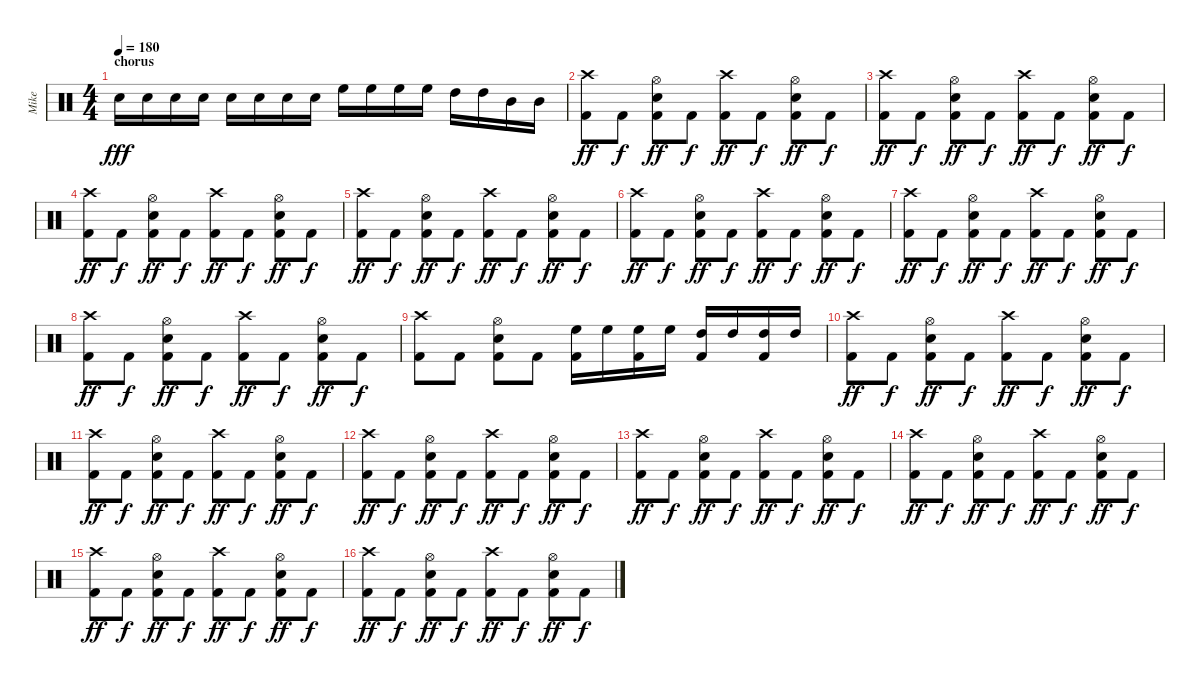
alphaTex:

\track ("Mike" "Mike") {instrument percussion}
\staff {score}
\articulation defaults
\ts (4 4)
\section ("" "chorus")
\tempo 180
\clef neutral
\ks c "Snare (hit) 2".16{dy fff} "Snare (hit) 2".16 "Snare (hit) 2".16 "Snare (hit) 2".16 "Snare (hit) 2".16 "Snare (hit) 2".16 "Snare (hit) 2".16 "Snare (hit) 2".16 "High Floor Tom (hit)".16 "High Floor Tom (hit)".16 "High Floor Tom (hit)".16 "High Floor Tom (hit)".16 "High Tom (hit)".16 "High Tom (hit)".16 "Mid Tom (hit)".16 "Mid Tom (hit)".16
|
("Crash high (hit)" "Kick (hit) 2").8{dy ff} "Kick (hit) 2".8{dy f} ("Hi-Hat (open)" "Snare (hit) 2" "Kick (hit) 2").8{dy ff} "Kick (hit) 2".8{dy f} ("Crash high (hit)" "Kick (hit) 2").8{dy ff} "Kick (hit) 2".8{dy f} ("Hi-Hat (open)" "Snare (hit) 2" "Kick (hit) 2").8{dy ff} "Kick (hit) 2".8{dy f} |
("Crash high (hit)" "Kick (hit) 2").8{dy ff} "Kick (hit) 2".8{dy f} ("Hi-Hat (open)" "Snare (hit) 2" "Kick (hit) 2").8{dy ff} "Kick (hit) 2".8{dy f} ("Crash high (hit)" "Kick (hit) 2").8{dy ff} "Kick (hit) 2".8{dy f} ("Hi-Hat (open)" "Snare (hit) 2" "Kick (hit) 2").8{dy ff} "Kick (hit) 2".8{dy f} |
("Crash high (hit)" "Kick (hit) 2").8{dy ff} "Kick (hit) 2".8{dy f} ("Hi-Hat (open)" "Snare (hit) 2" "Kick (hit) 2").8{dy ff} "Kick (hit) 2".8{dy f} ("Crash high (hit)" "Kick (hit) 2").8{dy ff} "Kick (hit) 2".8{dy f} ("Hi-Hat (open)" "Snare (hit) 2" "Kick (hit) 2").8{dy ff} "Kick (hit) 2".8{dy f} |
("Crash high (hit)" "Kick (hit) 2").8{dy ff} "Kick (hit) 2".8{dy f} ("Hi-Hat (open)" "Snare (hit) 2" "Kick (hit) 2").8{dy ff} "Kick (hit) 2".8{dy f} ("Crash high (hit)" "Kick (hit) 2").8{dy ff} "Kick (hit) 2".8{dy f} ("Hi-Hat (open)" "Snare (hit) 2" "Kick (hit) 2").8{dy ff} "Kick (hit) 2".8{dy f} |
("Crash high (hit)" "Kick (hit) 2").8{dy ff} "Kick (hit) 2".8{dy f} ("Hi-Hat (open)" "Snare (hit) 2" "Kick (hit) 2").8{dy ff} "Kick (hit) 2".8{dy f} ("Crash high (hit)" "Kick (hit) 2").8{dy ff} "Kick (hit) 2".8{dy f} ("Hi-Hat (open)" "Snare (hit) 2" "Kick (hit) 2").8{dy ff} "Kick (hit) 2".8{dy f} |
("Crash high (hit)" "Kick (hit) 2").8{dy ff} "Kick (hit) 2".8{dy f} ("Hi-Hat (open)" "Snare (hit) 2" "Kick (hit) 2").8{dy ff} "Kick (hit) 2".8{dy f} ("Crash high (hit)" "Kick (hit) 2").8{dy ff} "Kick (hit) 2".8{dy f} ("Hi-Hat (open)" "Snare (hit) 2" "Kick (hit) 2").8{dy ff} "Kick (hit) 2".8{dy f} |
("Crash high (hit)" "Kick (hit) 2").8{dy ff} "Kick (hit) 2".8{dy f} ("Hi-Hat (open)" "Snare (hit) 2" "Kick (hit) 2").8{dy ff} "Kick (hit) 2".8{dy f} ("Crash high (hit)" "Kick (hit) 2").8{dy ff} "Kick (hit) 2".8{dy f} ("Hi-Hat (open)" "Snare (hit) 2" "Kick (hit) 2").8{dy ff} "Kick (hit) 2".8{dy f} |
("Crash high (hit)" "Kick (hit) 2").8 "Kick (hit) 2".8 ("Hi-Hat (open)" "Snare (hit) 2" "Kick (hit) 2").8 "Kick (hit) 2".8 ("High Floor Tom (hit)" "Kick (hit) 2").16 "High Floor Tom (hit)".16 ("High Floor Tom (hit)" "Kick (hit) 2").16 "High Floor Tom (hit)".16 ("High Tom (hit)" "Kick (hit) 2").16 "High Tom (hit)".16 ("High Tom (hit)" "Kick (hit) 2").16 "High Tom (hit)".16 |
("Crash high (hit)" "Kick (hit) 2").8{dy ff} "Kick (hit) 2".8{dy f} ("Hi-Hat (open)" "Snare (hit) 2" "Kick (hit) 2").8{dy ff} "Kick (hit) 2".8{dy f} ("Crash high (hit)" "Kick (hit) 2").8{dy ff} "Kick (hit) 2".8{dy f} ("Hi-Hat (open)" "Snare (hit) 2" "Kick (hit) 2").8{dy ff} "Kick (hit) 2".8{dy f} |
("Crash high (hit)" "Kick (hit) 2").8{dy ff} "Kick (hit) 2".8{dy f} ("Hi-Hat (open)" "Snare (hit) 2" "Kick (hit) 2").8{dy ff} "Kick (hit) 2".8{dy f} ("Crash high (hit)" "Kick (hit) 2").8{dy ff} "Kick (hit) 2".8{dy f} ("Hi-Hat (open)" "Snare (hit) 2" "Kick (hit) 2").8{dy ff} "Kick (hit) 2".8{dy f} |
("Crash high (hit)" "Kick (hit) 2").8{dy ff} "Kick (hit) 2".8{dy f} ("Hi-Hat (open)" "Snare (hit) 2" "Kick (hit) 2").8{dy ff} "Kick (hit) 2".8{dy f} ("Crash high (hit)" "Kick (hit) 2").8{dy ff} "Kick (hit) 2".8{dy f} ("Hi-Hat (open)" "Snare (hit) 2" "Kick (hit) 2").8{dy ff} "Kick (hit) 2".8{dy f} |
("Crash high (hit)" "Kick (hit) 2").8{dy ff} "Kick (hit) 2".8{dy f} ("Hi-Hat (open)" "Snare (hit) 2" "Kick (hit) 2").8{dy ff} "Kick (hit) 2".8{dy f} ("Crash high (hit)" "Kick (hit) 2").8{dy ff} "Kick (hit) 2".8{dy f} ("Hi-Hat (open)" "Snare (hit) 2" "Kick (hit) 2").8{dy ff} "Kick (hit) 2".8{dy f} |
("Crash high (hit)" "Kick (hit) 2").8{dy ff} "Kick (hit) 2".8{dy f} ("Hi-Hat (open)" "Snare (hit) 2" "Kick (hit) 2").8{dy ff} "Kick (hit) 2".8{dy f} ("Crash high (hit)" "Kick (hit) 2").8{dy ff} "Kick (hit) 2".8{dy f} ("Hi-Hat (open)" "Snare (hit) 2" "Kick (hit) 2").8{dy ff} "Kick (hit) 2".8{dy f} |
("Crash high (hit)" "Kick (hit) 2").8{dy ff} "Kick (hit) 2".8{dy f} ("Hi-Hat (open)" "Snare (hit) 2" "Kick (hit) 2").8{dy ff} "Kick (hit) 2".8{dy f} ("Crash high (hit)" "Kick (hit) 2").8{dy ff} "Kick (hit) 2".8{dy f} ("Hi-Hat (open)" "Snare (hit) 2" "Kick (hit) 2").8{dy ff} "Kick (hit) 2".8{dy f} |
("Crash high (hit)" "Kick (hit) 2").8{dy ff} "Kick (hit) 2".8{dy f} ("Hi-Hat (open)" "Snare (hit) 2" "Kick (hit) 2").8{dy ff} "Kick (hit) 2".8{dy f} ("Crash high (hit)" "Kick (hit) 2").8{dy ff} "Kick (hit) 2".8{dy f} ("Hi-Hat (open)" "Snare (hit) 2" "Kick (hit) 2").8{dy ff} "Kick (hit) 2".8{dy f}
